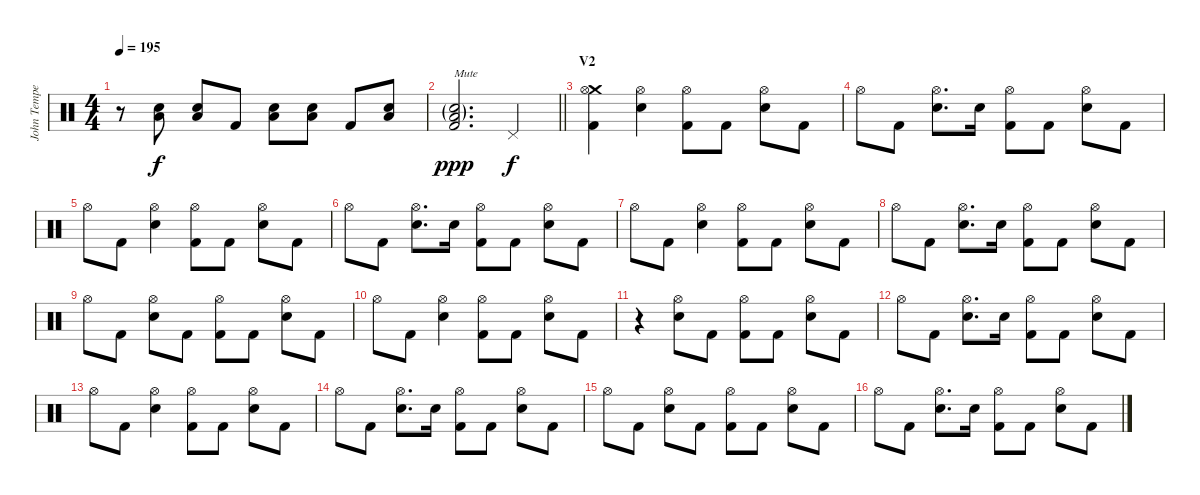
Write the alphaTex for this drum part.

\track ("John Tempesta" "John Tempe") {instrument percussion}
\staff {score}
\articulation defaults
\ts (4 4)
\tempo 195
\clef neutral
\ks c
r.8{dy f} ("Electric Snare (hit)" "Low Floor Tom (hit)").8 ("Electric Snare (hit)" "Low Floor Tom (hit)").8 "Kick (hit) 2".8 ("Electric Snare (hit)" "Low Floor Tom (hit)").8 ("Electric Snare (hit)" "Low Floor Tom (hit)").8 "Kick (hit) 2".8 ("Electric Snare (hit)" "Low Floor Tom (hit)").8 |
\barLineRight lightlight
("Electric Snare (hit)"{g} "Low Floor Tom (hit)"{g} "Kick (hit) 2").2{d txt "Mute" dy ppp} "Pedal Hi-Hat (hit)".4{dy f} |
\section ("" "V2")
("Crash medium (hit)" "Hi-Hat (open)" "Kick (hit) 2").4 ("Hi-Hat (open)" "Electric Snare (hit)").4 ("Hi-Hat (open)" "Kick (hit) 2").8 "Kick (hit) 2".8 ("Hi-Hat (open)" "Electric Snare (hit)").8 "Kick (hit) 2".8 |
"Hi-Hat (open)".8 "Kick (hit) 2".8 ("Hi-Hat (open)" "Electric Snare (hit)").8{d} "Electric Snare (hit)".16 ("Hi-Hat (open)" "Kick (hit) 2").8 "Kick (hit) 2".8 ("Hi-Hat (open)" "Electric Snare (hit)").8 "Kick (hit) 2".8 |
"Hi-Hat (open)".8 "Kick (hit) 2".8 ("Hi-Hat (open)" "Electric Snare (hit)").4 ("Hi-Hat (open)" "Kick (hit) 2").8 "Kick (hit) 2".8 ("Hi-Hat (open)" "Electric Snare (hit)").8 "Kick (hit) 2".8 |
"Hi-Hat (open)".8 "Kick (hit) 2".8 ("Hi-Hat (open)" "Electric Snare (hit)").8{d} "Electric Snare (hit)".16 ("Hi-Hat (open)" "Kick (hit) 2").8 "Kick (hit) 2".8 ("Hi-Hat (open)" "Electric Snare (hit)").8 "Kick (hit) 2".8 |
"Hi-Hat (open)".8 "Kick (hit) 2".8 ("Hi-Hat (open)" "Electric Snare (hit)").4 ("Hi-Hat (open)" "Kick (hit) 2").8 "Kick (hit) 2".8 ("Hi-Hat (open)" "Electric Snare (hit)").8 "Kick (hit) 2".8 |
"Hi-Hat (open)".8 "Kick (hit) 2".8 ("Hi-Hat (open)" "Electric Snare (hit)").8{d} "Electric Snare (hit)".16 ("Hi-Hat (open)" "Kick (hit) 2").8 "Kick (hit) 2".8 ("Hi-Hat (open)" "Electric Snare (hit)").8 "Kick (hit) 2".8 |
"Hi-Hat (open)".8 "Kick (hit) 2".8 ("Hi-Hat (open)" "Electric Snare (hit)").8 "Kick (hit) 2".8 ("Hi-Hat (open)" "Kick (hit) 2").8 "Kick (hit) 2".8 ("Hi-Hat (open)" "Electric Snare (hit)").8 "Kick (hit) 2".8 |
"Hi-Hat (open)".8 "Kick (hit) 2".8 ("Hi-Hat (open)" "Electric Snare (hit)").4 ("Hi-Hat (open)" "Kick (hit) 2").8 "Kick (hit) 2".8 ("Hi-Hat (open)" "Electric Snare (hit)").8 "Kick (hit) 2".8 |
r.4 ("Hi-Hat (open)" "Electric Snare (hit)").8 "Kick (hit) 2".8 ("Hi-Hat (open)" "Kick (hit) 2").8 "Kick (hit) 2".8 ("Hi-Hat (open)" "Electric Snare (hit)").8 "Kick (hit) 2".8 |
"Hi-Hat (open)".8 "Kick (hit) 2".8 ("Hi-Hat (open)" "Electric Snare (hit)").8{d} "Electric Snare (hit)".16 ("Hi-Hat (open)" "Kick (hit) 2").8 "Kick (hit) 2".8 ("Hi-Hat (open)" "Electric Snare (hit)").8 "Kick (hit) 2".8 |
"Hi-Hat (open)".8 "Kick (hit) 2".8 ("Hi-Hat (open)" "Electric Snare (hit)").4 ("Hi-Hat (open)" "Kick (hit) 2").8 "Kick (hit) 2".8 ("Hi-Hat (open)" "Electric Snare (hit)").8 "Kick (hit) 2".8 |
"Hi-Hat (open)".8 "Kick (hit) 2".8 ("Hi-Hat (open)" "Electric Snare (hit)").8{d} "Electric Snare (hit)".16 ("Hi-Hat (open)" "Kick (hit) 2").8 "Kick (hit) 2".8 ("Hi-Hat (open)" "Electric Snare (hit)").8 "Kick (hit) 2".8 |
"Hi-Hat (open)".8 "Kick (hit) 2".8 ("Hi-Hat (open)" "Electric Snare (hit)").8 "Kick (hit) 2".8 ("Hi-Hat (open)" "Kick (hit) 2").8 "Kick (hit) 2".8 ("Hi-Hat (open)" "Electric Snare (hit)").8 "Kick (hit) 2".8 |
"Hi-Hat (open)".8 "Kick (hit) 2".8 ("Hi-Hat (open)" "Electric Snare (hit)").8{d} "Electric Snare (hit)".16 ("Hi-Hat (open)" "Kick (hit) 2").8 "Kick (hit) 2".8 ("Hi-Hat (open)" "Electric Snare (hit)").8 "Kick (hit) 2".8
